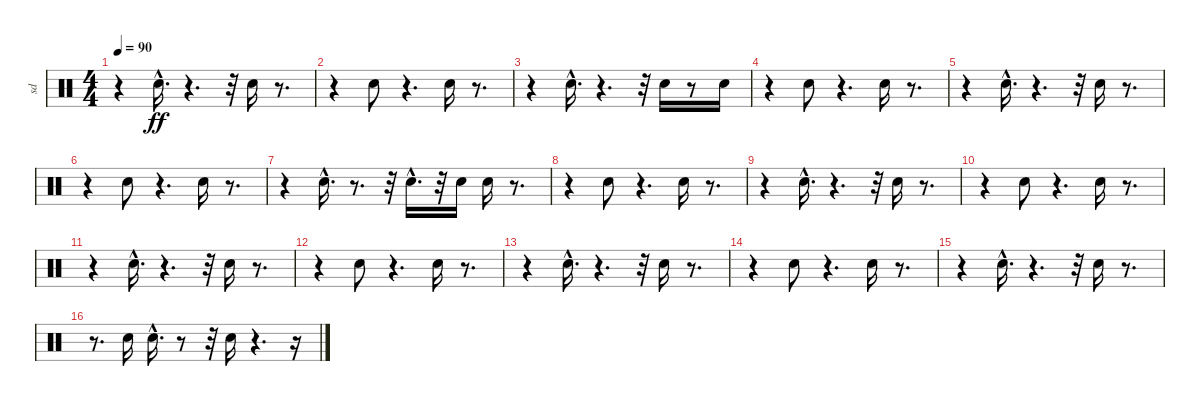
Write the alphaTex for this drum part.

\track ("sd" "sd") {instrument percussion}
\staff {score}
\articulation defaults
\ts (4 4)
\tempo 90
\clef neutral
\ks c
r.4{dy ff} "Snare (hit) 2"{hac}.16{d} r.4{d} r.32 "Snare (hit) 2".16 r.8{d} |
r.4 "Snare (hit) 2".8 r.4{d} "Snare (hit) 2".16 r.8{d} |
r.4 "Snare (hit) 2"{hac}.16{d} r.4{d} r.32 "Snare (hit) 2".16 r.8 "Snare (hit) 2".16 |
r.4 "Snare (hit) 2".8 r.4{d} "Snare (hit) 2".16 r.8{d} |
r.4 "Snare (hit) 2"{hac}.16{d} r.4{d} r.32 "Snare (hit) 2".16 r.8{d} |
r.4 "Snare (hit) 2".8 r.4{d} "Snare (hit) 2".16 r.8{d} |
r.4 "Snare (hit) 2"{hac}.16{d} r.8{d} r.32 "Snare (hit) 2"{hac}.16{d} r.32 "Snare (hit) 2".16 "Snare (hit) 2".16 r.8{d} |
r.4 "Snare (hit) 2".8 r.4{d} "Snare (hit) 2".16 r.8{d} |
r.4 "Snare (hit) 2"{hac}.16{d} r.4{d} r.32 "Snare (hit) 2".16 r.8{d} |
r.4 "Snare (hit) 2".8 r.4{d} "Snare (hit) 2".16 r.8{d} |
r.4 "Snare (hit) 2"{hac}.16{d} r.4{d} r.32 "Snare (hit) 2".16 r.8{d} |
r.4 "Snare (hit) 2".8 r.4{d} "Snare (hit) 2".16 r.8{d} |
r.4 "Snare (hit) 2"{hac}.16{d} r.4{d} r.32 "Snare (hit) 2".16 r.8{d} |
r.4 "Snare (hit) 2".8 r.4{d} "Snare (hit) 2".16 r.8{d} |
r.4 "Snare (hit) 2"{hac}.16{d} r.4{d} r.32 "Snare (hit) 2".16 r.8{d} |
r.8{d} "Snare (hit) 2".16 "Snare (hit) 2"{hac}.16{d} r.8 r.32 "Snare (hit) 2".16 r.4{d} r.16
